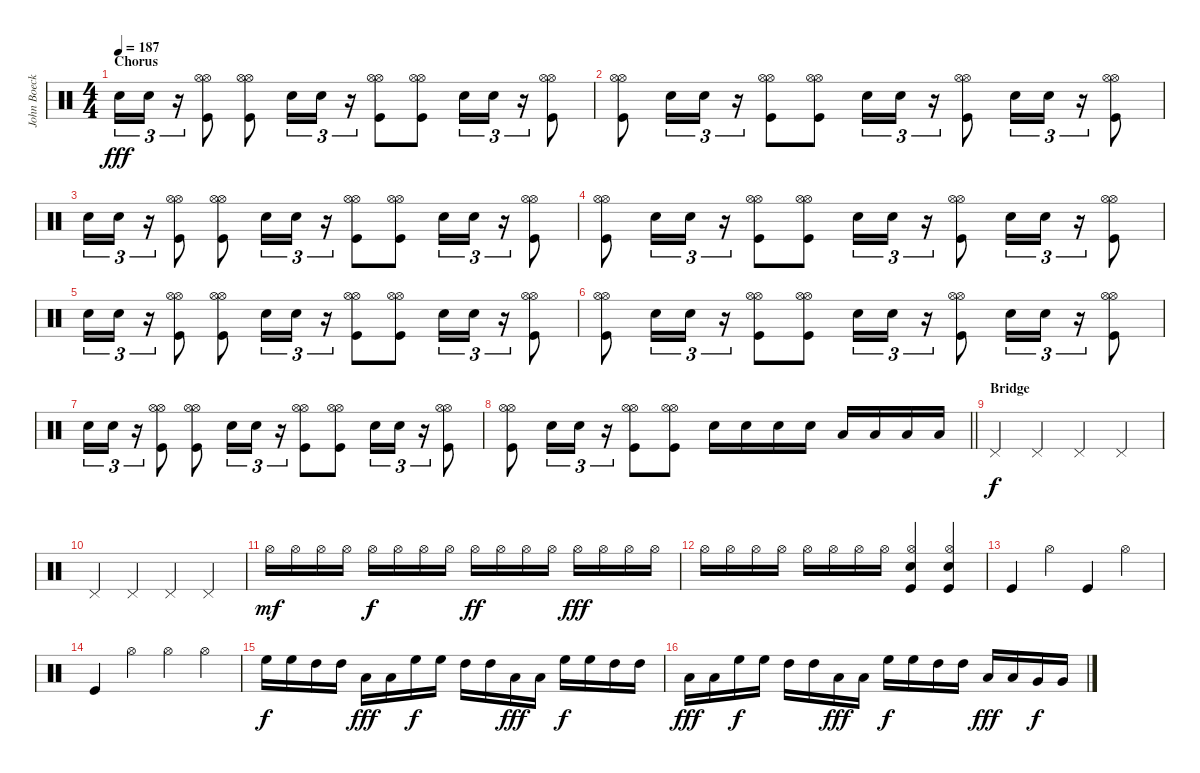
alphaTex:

\track ("John Boecklin - Drums" "John Boeck") {instrument percussion}
\staff {score}
\articulation defaults
\ts (4 4)
\section ("" "Chorus")
\tempo 187
\clef neutral
\ks c "Snare (hit) 2".16{tu (3 2) dy fff} "Snare (hit) 2".16{tu (3 2)}
r.16{tu (3 2)} ("Hi-Hat (open)" "Hi-Hat (open)" "Kick (hit)").8 ("Hi-Hat (open)" "Hi-Hat (open)" "Kick (hit)").8 "Snare (hit) 2".16{tu (3 2)} "Snare (hit) 2".16{tu (3 2)} r.16{tu (3 2)} ("Hi-Hat (open)" "Hi-Hat (open)" "Kick (hit)").8 ("Hi-Hat (open)" "Hi-Hat (open)" "Kick (hit)").8 "Snare (hit) 2".16{tu (3 2)} "Snare (hit) 2".16{tu (3 2)} r.16{tu (3 2)} ("Hi-Hat (open)" "Hi-Hat (open)" "Kick (hit)").8 |
("Hi-Hat (open)" "Hi-Hat (open)" "Kick (hit)").8 "Snare (hit) 2".16{tu (3 2)} "Snare (hit) 2".16{tu (3 2)} r.16{tu (3 2)} ("Hi-Hat (open)" "Hi-Hat (open)" "Kick (hit)").8 ("Hi-Hat (open)" "Hi-Hat (open)" "Kick (hit)").8 "Snare (hit) 2".16{tu (3 2)} "Snare (hit) 2".16{tu (3 2)} r.16{tu (3 2)} ("Hi-Hat (open)" "Hi-Hat (open)" "Kick (hit)").8 "Snare (hit) 2".16{tu (3 2)} "Snare (hit) 2".16{tu (3 2)} r.16{tu (3 2)} ("Hi-Hat (open)" "Hi-Hat (open)" "Kick (hit)").8 |
"Snare (hit) 2".16{tu (3 2)} "Snare (hit) 2".16{tu (3 2)} r.16{tu (3 2)} ("Hi-Hat (open)" "Hi-Hat (open)" "Kick (hit)").8 ("Hi-Hat (open)" "Hi-Hat (open)" "Kick (hit)").8 "Snare (hit) 2".16{tu (3 2)} "Snare (hit) 2".16{tu (3 2)} r.16{tu (3 2)} ("Hi-Hat (open)" "Hi-Hat (open)" "Kick (hit)").8 ("Hi-Hat (open)" "Hi-Hat (open)" "Kick (hit)").8 "Snare (hit) 2".16{tu (3 2)} "Snare (hit) 2".16{tu (3 2)} r.16{tu (3 2)} ("Hi-Hat (open)" "Hi-Hat (open)" "Kick (hit)").8 |
("Hi-Hat (open)" "Hi-Hat (open)" "Kick (hit)").8 "Snare (hit) 2".16{tu (3 2)} "Snare (hit) 2".16{tu (3 2)} r.16{tu (3 2)} ("Hi-Hat (open)" "Hi-Hat (open)" "Kick (hit)").8 ("Hi-Hat (open)" "Hi-Hat (open)" "Kick (hit)").8 "Snare (hit) 2".16{tu (3 2)} "Snare (hit) 2".16{tu (3 2)} r.16{tu (3 2)} ("Hi-Hat (open)" "Hi-Hat (open)" "Kick (hit)").8 "Snare (hit) 2".16{tu (3 2)} "Snare (hit) 2".16{tu (3 2)} r.16{tu (3 2)} ("Hi-Hat (open)" "Hi-Hat (open)" "Kick (hit)").8 |
"Snare (hit) 2".16{tu (3 2)} "Snare (hit) 2".16{tu (3 2)} r.16{tu (3 2)} ("Hi-Hat (open)" "Hi-Hat (open)" "Kick (hit)").8 ("Hi-Hat (open)" "Hi-Hat (open)" "Kick (hit)").8 "Snare (hit) 2".16{tu (3 2)} "Snare (hit) 2".16{tu (3 2)} r.16{tu (3 2)} ("Hi-Hat (open)" "Hi-Hat (open)" "Kick (hit)").8 ("Hi-Hat (open)" "Hi-Hat (open)" "Kick (hit)").8 "Snare (hit) 2".16{tu (3 2)} "Snare (hit) 2".16{tu (3 2)} r.16{tu (3 2)} ("Hi-Hat (open)" "Hi-Hat (open)" "Kick (hit)").8 |
("Hi-Hat (open)" "Hi-Hat (open)" "Kick (hit)").8 "Snare (hit) 2".16{tu (3 2)} "Snare (hit) 2".16{tu (3 2)} r.16{tu (3 2)} ("Hi-Hat (open)" "Hi-Hat (open)" "Kick (hit)").8 ("Hi-Hat (open)" "Hi-Hat (open)" "Kick (hit)").8 "Snare (hit) 2".16{tu (3 2)} "Snare (hit) 2".16{tu (3 2)} r.16{tu (3 2)} ("Hi-Hat (open)" "Hi-Hat (open)" "Kick (hit)").8 "Snare (hit) 2".16{tu (3 2)} "Snare (hit) 2".16{tu (3 2)} r.16{tu (3 2)} ("Hi-Hat (open)" "Hi-Hat (open)" "Kick (hit)").8 |
"Snare (hit) 2".16{tu (3 2)} "Snare (hit) 2".16{tu (3 2)} r.16{tu (3 2)} ("Hi-Hat (open)" "Hi-Hat (open)" "Kick (hit)").8 ("Hi-Hat (open)" "Hi-Hat (open)" "Kick (hit)").8 "Snare (hit) 2".16{tu (3 2)} "Snare (hit) 2".16{tu (3 2)} r.16{tu (3 2)} ("Hi-Hat (open)" "Hi-Hat (open)" "Kick (hit)").8 ("Hi-Hat (open)" "Hi-Hat (open)" "Kick (hit)").8 "Snare (hit) 2".16{tu (3 2)} "Snare (hit) 2".16{tu (3 2)} r.16{tu (3 2)} ("Hi-Hat (open)" "Hi-Hat (open)" "Kick (hit)").8 |
\barLineRight lightlight
("Hi-Hat (open)" "Hi-Hat (open)" "Kick (hit)").8 "Snare (hit) 2".16{tu (3 2)} "Snare (hit) 2".16{tu (3 2)} r.16{tu (3 2)} ("Hi-Hat (open)" "Hi-Hat (open)" "Kick (hit)").8 ("Hi-Hat (open)" "Hi-Hat (open)" "Kick (hit)").8 "Snare (hit) 2".16 "Snare (hit) 2".16 "Snare (hit) 2".16 "Snare (hit) 2".16 "Low Tom (hit)".16 "Low Tom (hit)".16 "Low Tom (hit)".16 "Low Tom (hit)".16 |
\section ("" "Bridge")
"Pedal Hi-Hat (hit)".4{dy f} "Pedal Hi-Hat (hit)".4 "Pedal Hi-Hat (hit)".4 "Pedal Hi-Hat (hit)".4 |
"Pedal Hi-Hat (hit)".4 "Pedal Hi-Hat (hit)".4 "Pedal Hi-Hat (hit)".4 "Pedal Hi-Hat (hit)".4 |
"Hi-Hat (open)".16{dy mf} "Hi-Hat (open)".16 "Hi-Hat (open)".16 "Hi-Hat (open)".16 "Hi-Hat (open)".16{dy f} "Hi-Hat (open)".16 "Hi-Hat (open)".16 "Hi-Hat (open)".16 "Hi-Hat (open)".16{dy ff} "Hi-Hat (open)".16 "Hi-Hat (open)".16 "Hi-Hat (open)".16 "Hi-Hat (open)".16{dy fff} "Hi-Hat (open)".16 "Hi-Hat (open)".16 "Hi-Hat (open)".16 |
"Hi-Hat (open)".16 "Hi-Hat (open)".16 "Hi-Hat (open)".16 "Hi-Hat (open)".16 "Hi-Hat (open)".16 "Hi-Hat (open)".16 "Hi-Hat (open)".16 "Hi-Hat (open)".16 ("Snare (hit) 2" "Hi-Hat (open)" "Kick (hit)").4 ("Snare (hit) 2" "Hi-Hat (open)" "Kick (hit)").4 |
"Kick (hit)".4 "Hi-Hat (open)".4 "Kick (hit)".4 "Hi-Hat (open)".4 |
"Kick (hit)".4 "Hi-Hat (open)".4 "Hi-Hat (open)".4 "Hi-Hat (open)".4 |
"High Floor Tom (hit)".16{dy f} "High Floor Tom (hit)".16 "High Tom (hit)".16 "High Tom (hit)".16 "Low Tom (hit)".16{dy fff} "Low Tom (hit)".16 "High Floor Tom (hit)".16{dy f} "High Floor Tom (hit)".16 "High Tom (hit)".16 "High Tom (hit)".16 "Low Tom (hit)".16{dy fff} "Low Tom (hit)".16 "High Floor Tom (hit)".16{dy f} "High Floor Tom (hit)".16 "High Tom (hit)".16 "High Tom (hit)".16 |
"Low Tom (hit)".16{dy fff} "Low Tom (hit)".16 "High Floor Tom (hit)".16{dy f} "High Floor Tom (hit)".16 "High Tom (hit)".16 "High Tom (hit)".16 "Low Tom (hit)".16{dy fff} "Low Tom (hit)".16 "High Floor Tom (hit)".16{dy f} "High Floor Tom (hit)".16 "High Tom (hit)".16 "High Tom (hit)".16 "Low Tom (hit)".16{dy fff} "Low Tom (hit)".16 "Very Low Tom (hit)".16{dy f} "Very Low Tom (hit)".16
